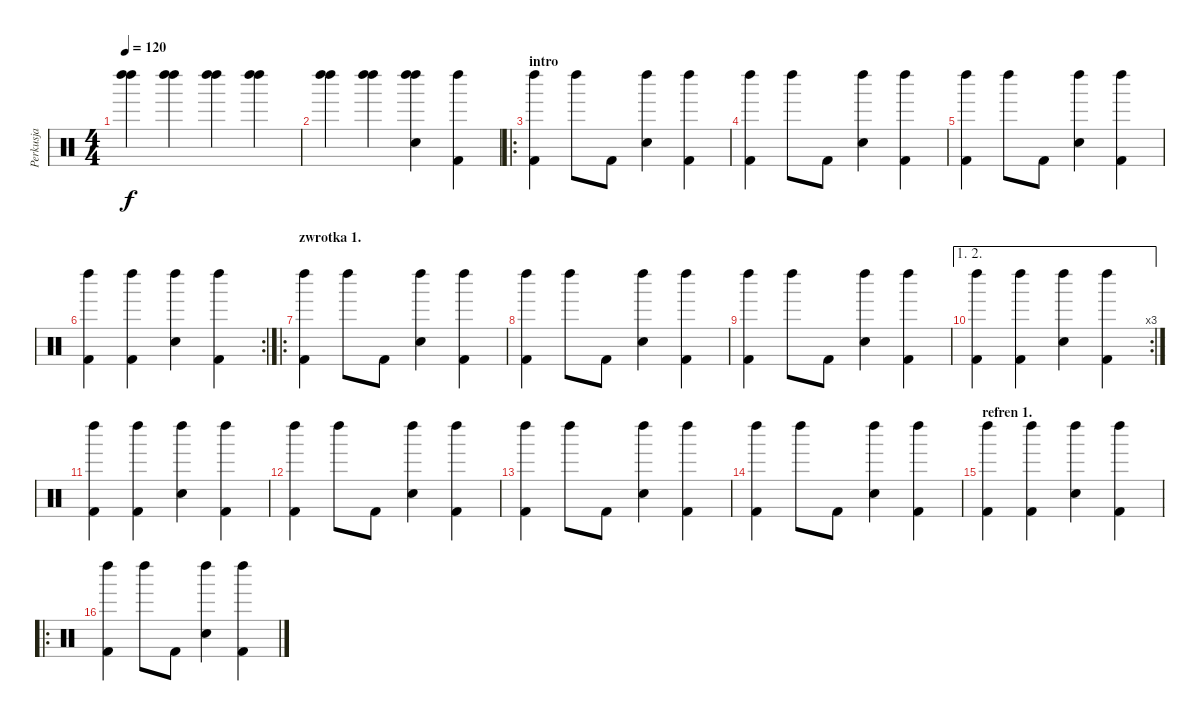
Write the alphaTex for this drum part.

\track ("Perkusja" "Perkusja") {instrument percussion}
\staff {score}
\articulation defaults
\ts (4 4)
\tempo 120
\clef neutral
\ks c
("Left Maraca (hit)" "Left Maraca (hit)").4{dy f} ("Left Maraca (hit)" "Left Maraca (hit)").4 ("Left Maraca (hit)" "Left Maraca (hit)").4 ("Left Maraca (hit)" "Left Maraca (hit)").4 |
("Left Maraca (hit)" "Left Maraca (hit)").4 ("Left Maraca (hit)" "Left Maraca (hit)").4 ("Left Maraca (hit)" "Snare (hit) 2" "Left Maraca (hit)").4 ("Left Maraca (hit)" "Kick (hit) 2").4 |
\ro
\section ("" "intro")
("Left Maraca (hit)" "Kick (hit) 2").4 "Left Maraca (hit)".8 "Kick (hit) 2".8 ("Left Maraca (hit)" "Snare (hit) 2").4 ("Left Maraca (hit)" "Kick (hit) 2").4 |
("Left Maraca (hit)" "Kick (hit) 2").4 "Left Maraca (hit)".8 "Kick (hit) 2".8 ("Left Maraca (hit)" "Snare (hit) 2").4 ("Left Maraca (hit)" "Kick (hit) 2").4 |
("Left Maraca (hit)" "Kick (hit) 2").4 "Left Maraca (hit)".8 "Kick (hit) 2".8 ("Left Maraca (hit)" "Snare (hit) 2").4 ("Left Maraca (hit)" "Kick (hit) 2").4 |
\rc 2
("Left Maraca (hit)" "Kick (hit) 2").4 ("Left Maraca (hit)" "Kick (hit) 2").4 ("Left Maraca (hit)" "Snare (hit) 2").4 ("Left Maraca (hit)" "Kick (hit) 2").4 |
\ro
\section ("" "zwrotka 1.")
("Left Maraca (hit)" "Kick (hit) 2").4 "Left Maraca (hit)".8 "Kick (hit) 2".8 ("Left Maraca (hit)" "Snare (hit) 2").4 ("Left Maraca (hit)" "Kick (hit) 2").4 |
("Left Maraca (hit)" "Kick (hit) 2").4 "Left Maraca (hit)".8 "Kick (hit) 2".8 ("Left Maraca (hit)" "Snare (hit) 2").4 ("Left Maraca (hit)" "Kick (hit) 2").4 |
("Left Maraca (hit)" "Kick (hit) 2").4 "Left Maraca (hit)".8 "Kick (hit) 2".8 ("Left Maraca (hit)" "Snare (hit) 2").4 ("Left Maraca (hit)" "Kick (hit) 2").4 |
\ae (1 2)
\rc 3
("Left Maraca (hit)" "Kick (hit) 2").4 ("Left Maraca (hit)" "Kick (hit) 2").4 ("Left Maraca (hit)" "Snare (hit) 2").4 ("Left Maraca (hit)" "Kick (hit) 2").4 |
("Left Maraca (hit)" "Kick (hit) 2").4 ("Left Maraca (hit)" "Kick (hit) 2").4 ("Left Maraca (hit)" "Snare (hit) 2").4 ("Left Maraca (hit)" "Kick (hit) 2").4 |
("Left Maraca (hit)" "Kick (hit) 2").4 "Left Maraca (hit)".8 "Kick (hit) 2".8 ("Left Maraca (hit)" "Snare (hit) 2").4 ("Left Maraca (hit)" "Kick (hit) 2").4 |
("Left Maraca (hit)" "Kick (hit) 2").4 "Left Maraca (hit)".8 "Kick (hit) 2".8 ("Left Maraca (hit)" "Snare (hit) 2").4 ("Left Maraca (hit)" "Kick (hit) 2").4 |
("Left Maraca (hit)" "Kick (hit) 2").4 "Left Maraca (hit)".8 "Kick (hit) 2".8 ("Left Maraca (hit)" "Snare (hit) 2").4 ("Left Maraca (hit)" "Kick (hit) 2").4 |
\section ("" "refren 1.")
("Left Maraca (hit)" "Kick (hit) 2").4 ("Left Maraca (hit)" "Kick (hit) 2").4 ("Left Maraca (hit)" "Snare (hit) 2").4 ("Left Maraca (hit)" "Kick (hit) 2").4 |
\ro
("Left Maraca (hit)" "Kick (hit) 2").4 "Left Maraca (hit)".8 "Kick (hit) 2".8 ("Left Maraca (hit)" "Snare (hit) 2").4 ("Left Maraca (hit)" "Kick (hit) 2").4
